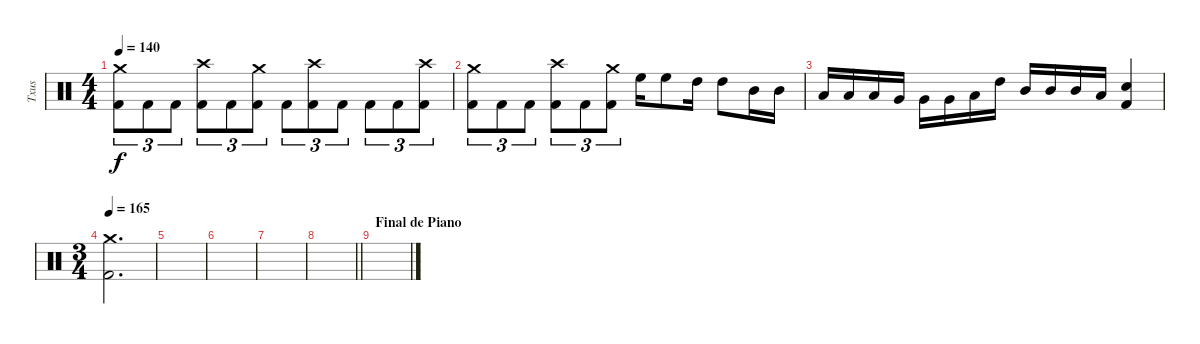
\track ("Txus" "Txus") {instrument percussion}
\staff {score}
\articulation defaults
\ts (4 4)
\tempo 140
\clef neutral
\ks c
("Crash medium (hit)" "Kick (hit) 2").8{tu (3 2) dy f} "Kick (hit) 2".8{tu (3 2)} "Kick (hit) 2".8{tu (3 2)} ("Crash high (hit)" "Kick (hit) 2").8{tu (3 2)} "Kick (hit) 2".8{tu (3 2)} ("Crash medium (hit)" "Kick (hit) 2").8{tu (3 2)} "Kick (hit) 2".8{tu (3 2)} ("Crash high (hit)" "Kick (hit) 2").8{tu (3 2)} "Kick (hit) 2".8{tu (3 2)} "Kick (hit) 2".8{tu (3 2)} "Kick (hit) 2".8{tu (3 2)} ("Crash high (hit)" "Kick (hit) 2").8{tu (3 2)} |
("Crash medium (hit)" "Kick (hit) 2").8{tu (3 2)} "Kick (hit) 2".8{tu (3 2)} "Kick (hit) 2".8{tu (3 2)} ("Crash high (hit)" "Kick (hit) 2").8{tu (3 2)} "Kick (hit) 2".8{tu (3 2)} ("Crash medium (hit)" "Kick (hit) 2").8{tu (3 2)} "High Floor Tom (hit)".16 "High Floor Tom (hit)".8 "High Tom (hit)".16 "High Tom (hit)".8 "Mid Tom (hit)".16 "Mid Tom (hit)".16 |
"Low Tom (hit)".16 "Low Tom (hit)".16 "Low Tom (hit)".16 "Very Low Tom (hit)".16 "Very Low Tom (hit)".16 "Very Low Tom (hit)".16 "Low Floor Tom (hit)".16 "High Tom (hit)".16 "Mid Tom (hit)".16 "Mid Tom (hit)".16 "Mid Tom (hit)".16 "Low Tom (hit)".16 ("Electric Snare (hit)" "Kick (hit) 2").4 |
\ts (3 4)
\tempo 165
("Crash medium (hit)" "Kick (hit) 2").2{d} |
|
|
|
\barLineRight lightlight
|
\section ("" "Final de Piano")
